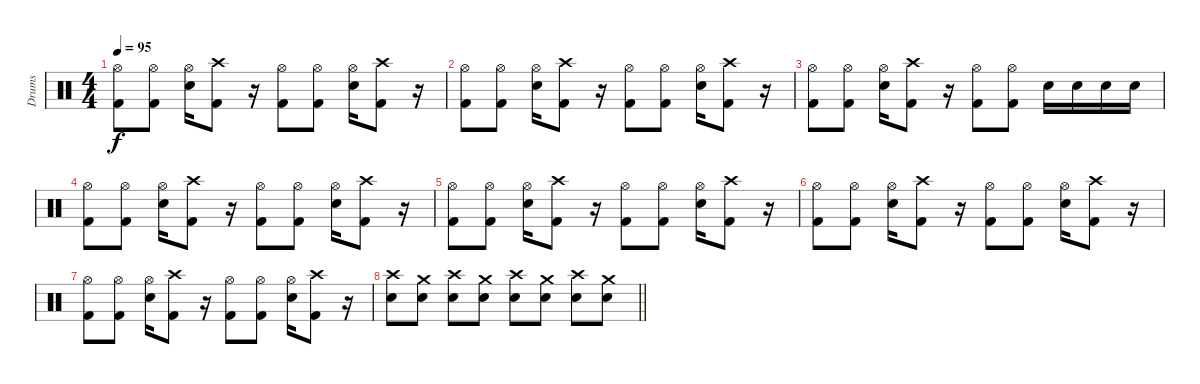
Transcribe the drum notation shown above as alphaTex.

\track ("Drums" "Drums") {instrument percussion}
\staff {score}
\articulation defaults
\ts (4 4)
\tempo 95
\clef neutral
\ks c
("Hi-Hat (open)" "Kick (hit) 2").8{dy f} ("Hi-Hat (open)" "Kick (hit) 2").8 ("Hi-Hat (open)" "Electric Snare (hit)").16 ("Crash high (hit)" "Kick (hit) 2").8 r.16 ("Hi-Hat (open)" "Kick (hit) 2").8 ("Hi-Hat (open)" "Kick (hit) 2").8 ("Hi-Hat (open)" "Electric Snare (hit)").16 ("Crash high (hit)" "Kick (hit) 2").8 r.16 |
("Hi-Hat (open)" "Kick (hit) 2").8 ("Hi-Hat (open)" "Kick (hit) 2").8 ("Hi-Hat (open)" "Electric Snare (hit)").16 ("Crash high (hit)" "Kick (hit) 2").8 r.16 ("Hi-Hat (open)" "Kick (hit) 2").8 ("Hi-Hat (open)" "Kick (hit) 2").8 ("Hi-Hat (open)" "Electric Snare (hit)").16 ("Crash high (hit)" "Kick (hit) 2").8 r.16 |
("Hi-Hat (open)" "Kick (hit) 2").8 ("Hi-Hat (open)" "Kick (hit) 2").8 ("Hi-Hat (open)" "Electric Snare (hit)").16 ("Crash high (hit)" "Kick (hit) 2").8 r.16 ("Hi-Hat (open)" "Kick (hit) 2").8 ("Hi-Hat (open)" "Kick (hit) 2").8 "Electric Snare (hit)".16 "Electric Snare (hit)".16 "Electric Snare (hit)".16 "Electric Snare (hit)".16 |
("Hi-Hat (open)" "Kick (hit) 2").8 ("Hi-Hat (open)" "Kick (hit) 2").8 ("Hi-Hat (open)" "Electric Snare (hit)").16 ("Crash high (hit)" "Kick (hit) 2").8 r.16 ("Hi-Hat (open)" "Kick (hit) 2").8 ("Hi-Hat (open)" "Kick (hit) 2").8 ("Hi-Hat (open)" "Electric Snare (hit)").16 ("Crash high (hit)" "Kick (hit) 2").8 r.16 |
("Hi-Hat (open)" "Kick (hit) 2").8 ("Hi-Hat (open)" "Kick (hit) 2").8 ("Hi-Hat (open)" "Electric Snare (hit)").16 ("Crash high (hit)" "Kick (hit) 2").8 r.16 ("Hi-Hat (open)" "Kick (hit) 2").8 ("Hi-Hat (open)" "Kick (hit) 2").8 ("Hi-Hat (open)" "Electric Snare (hit)").16 ("Crash high (hit)" "Kick (hit) 2").8 r.16 |
("Hi-Hat (open)" "Kick (hit) 2").8 ("Hi-Hat (open)" "Kick (hit) 2").8 ("Hi-Hat (open)" "Electric Snare (hit)").16 ("Crash high (hit)" "Kick (hit) 2").8 r.16 ("Hi-Hat (open)" "Kick (hit) 2").8 ("Hi-Hat (open)" "Kick (hit) 2").8 ("Hi-Hat (open)" "Electric Snare (hit)").16 ("Crash high (hit)" "Kick (hit) 2").8 r.16 |
("Hi-Hat (open)" "Kick (hit) 2").8 ("Hi-Hat (open)" "Kick (hit) 2").8 ("Hi-Hat (open)" "Electric Snare (hit)").16 ("Crash high (hit)" "Kick (hit) 2").8 r.16 ("Hi-Hat (open)" "Kick (hit) 2").8 ("Hi-Hat (open)" "Kick (hit) 2").8 ("Hi-Hat (open)" "Electric Snare (hit)").16 ("Crash high (hit)" "Kick (hit) 2").8 r.16 |
\barLineRight lightlight
("Crash high (hit)" "Electric Snare (hit)").8 ("Crash medium (hit)" "Electric Snare (hit)").8 ("Crash high (hit)" "Electric Snare (hit)").8 ("Crash medium (hit)" "Electric Snare (hit)").8 ("Crash high (hit)" "Electric Snare (hit)").8 ("Crash medium (hit)" "Electric Snare (hit)").8 ("Crash high (hit)" "Electric Snare (hit)").8 ("Crash medium (hit)" "Electric Snare (hit)").8
